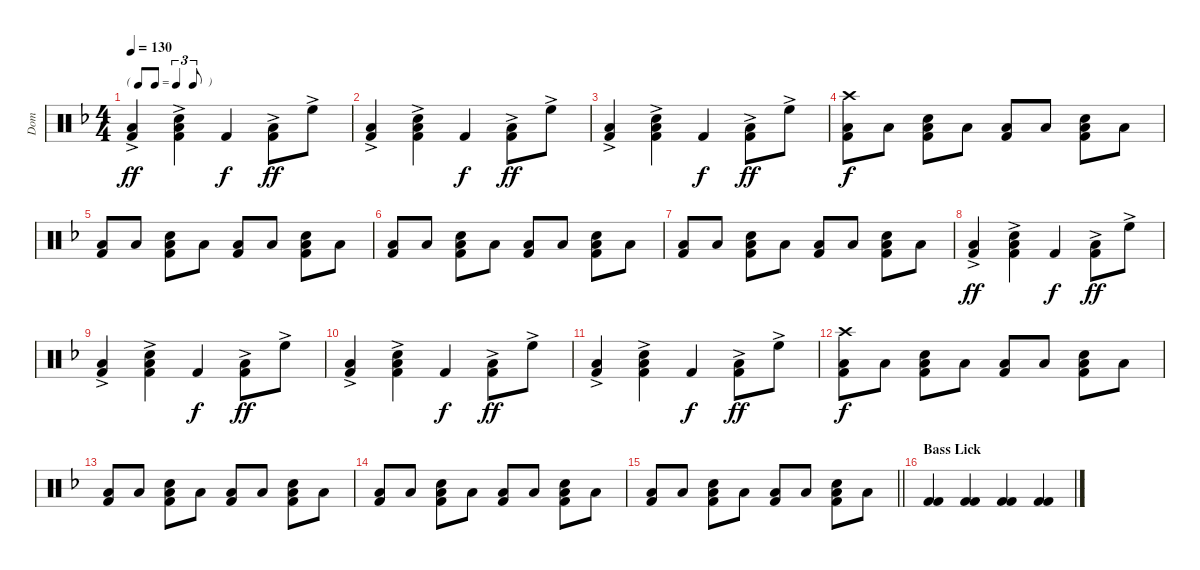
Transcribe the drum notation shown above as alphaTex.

\track ("Dom" "Dom") {instrument percussion}
\staff {score}
\articulation defaults
\ts (4 4)
\tf triplet8th
\tempo 130
\clef neutral
\ks dminor
("Low Tom (hit)"{ac} "Kick (hit) 2").4{dy ff} ("Electric Snare (hit)"{ac} "Low Tom (hit)"{ac} "Kick (hit) 2").4 "Kick (hit) 2".4{dy f} ("Low Tom (hit)"{ac} "Kick (hit) 2").8{dy ff} "High Floor Tom (hit)"{ac}.8 |
("Low Tom (hit)"{ac} "Kick (hit) 2").4 ("Electric Snare (hit)"{ac} "Low Tom (hit)"{ac} "Kick (hit) 2").4 "Kick (hit) 2".4{dy f} ("Low Tom (hit)"{ac} "Kick (hit) 2").8{dy ff} "High Floor Tom (hit)"{ac}.8 |
("Low Tom (hit)"{ac} "Kick (hit) 2").4 ("Electric Snare (hit)"{ac} "Low Tom (hit)"{ac} "Kick (hit) 2").4 "Kick (hit) 2".4{dy f} ("Low Tom (hit)"{ac} "Kick (hit) 2").8{dy ff} "High Floor Tom (hit)"{ac}.8 |
("Crash high (hit)" "Low Tom (hit)" "Kick (hit) 2").8{dy f} "Low Tom (hit)".8 ("Electric Snare (hit)" "Low Tom (hit)" "Kick (hit) 2").8 "Low Tom (hit)".8 ("Low Tom (hit)" "Kick (hit) 2").8 "Low Tom (hit)".8 ("Electric Snare (hit)" "Low Tom (hit)" "Kick (hit) 2").8 "Low Tom (hit)".8 |
("Low Tom (hit)" "Kick (hit) 2").8 "Low Tom (hit)".8 ("Electric Snare (hit)" "Low Tom (hit)" "Kick (hit) 2").8 "Low Tom (hit)".8 ("Low Tom (hit)" "Kick (hit) 2").8 "Low Tom (hit)".8 ("Electric Snare (hit)" "Low Tom (hit)" "Kick (hit) 2").8 "Low Tom (hit)".8 |
("Low Tom (hit)" "Kick (hit) 2").8 "Low Tom (hit)".8 ("Electric Snare (hit)" "Low Tom (hit)" "Kick (hit) 2").8 "Low Tom (hit)".8 ("Low Tom (hit)" "Kick (hit) 2").8 "Low Tom (hit)".8 ("Electric Snare (hit)" "Low Tom (hit)" "Kick (hit) 2").8 "Low Tom (hit)".8 |
("Low Tom (hit)" "Kick (hit) 2").8 "Low Tom (hit)".8 ("Electric Snare (hit)" "Low Tom (hit)" "Kick (hit) 2").8 "Low Tom (hit)".8 ("Low Tom (hit)" "Kick (hit) 2").8 "Low Tom (hit)".8 ("Electric Snare (hit)" "Low Tom (hit)" "Kick (hit) 2").8 "Low Tom (hit)".8 |
("Low Tom (hit)"{ac} "Kick (hit) 2").4{dy ff} ("Electric Snare (hit)"{ac} "Low Tom (hit)"{ac} "Kick (hit) 2").4 "Kick (hit) 2".4{dy f} ("Low Tom (hit)"{ac} "Kick (hit) 2").8{dy ff} "High Floor Tom (hit)"{ac}.8 |
("Low Tom (hit)"{ac} "Kick (hit) 2").4 ("Electric Snare (hit)"{ac} "Low Tom (hit)"{ac} "Kick (hit) 2").4 "Kick (hit) 2".4{dy f} ("Low Tom (hit)"{ac} "Kick (hit) 2").8{dy ff} "High Floor Tom (hit)"{ac}.8 |
("Low Tom (hit)"{ac} "Kick (hit) 2").4 ("Electric Snare (hit)"{ac} "Low Tom (hit)"{ac} "Kick (hit) 2").4 "Kick (hit) 2".4{dy f} ("Low Tom (hit)"{ac} "Kick (hit) 2").8{dy ff} "High Floor Tom (hit)"{ac}.8 |
("Low Tom (hit)"{ac} "Kick (hit) 2").4 ("Electric Snare (hit)"{ac} "Low Tom (hit)"{ac} "Kick (hit) 2").4 "Kick (hit) 2".4{dy f} ("Low Tom (hit)"{ac} "Kick (hit) 2").8{dy ff} "High Floor Tom (hit)"{ac}.8 |
("Crash high (hit)" "Low Tom (hit)" "Kick (hit) 2").8{dy f} "Low Tom (hit)".8 ("Electric Snare (hit)" "Low Tom (hit)" "Kick (hit) 2").8 "Low Tom (hit)".8 ("Low Tom (hit)" "Kick (hit) 2").8 "Low Tom (hit)".8 ("Electric Snare (hit)" "Low Tom (hit)" "Kick (hit) 2").8 "Low Tom (hit)".8 |
("Low Tom (hit)" "Kick (hit) 2").8 "Low Tom (hit)".8 ("Electric Snare (hit)" "Low Tom (hit)" "Kick (hit) 2").8 "Low Tom (hit)".8 ("Low Tom (hit)" "Kick (hit) 2").8 "Low Tom (hit)".8 ("Electric Snare (hit)" "Low Tom (hit)" "Kick (hit) 2").8 "Low Tom (hit)".8 |
("Low Tom (hit)" "Kick (hit) 2").8 "Low Tom (hit)".8 ("Electric Snare (hit)" "Low Tom (hit)" "Kick (hit) 2").8 "Low Tom (hit)".8 ("Low Tom (hit)" "Kick (hit) 2").8 "Low Tom (hit)".8 ("Electric Snare (hit)" "Low Tom (hit)" "Kick (hit) 2").8 "Low Tom (hit)".8 |
\barLineRight lightlight
("Low Tom (hit)" "Kick (hit) 2").8 "Low Tom (hit)".8 ("Electric Snare (hit)" "Low Tom (hit)" "Kick (hit) 2").8 "Low Tom (hit)".8 ("Low Tom (hit)" "Kick (hit) 2").8 "Low Tom (hit)".8 ("Electric Snare (hit)" "Low Tom (hit)" "Kick (hit) 2").8 "Low Tom (hit)".8 |
\section ("" "Bass Lick")
("Kick (hit) 2" "Kick (hit) 2").4 ("Kick (hit) 2" "Kick (hit) 2").4 ("Kick (hit) 2" "Kick (hit) 2").4 ("Kick (hit) 2" "Kick (hit) 2").4
